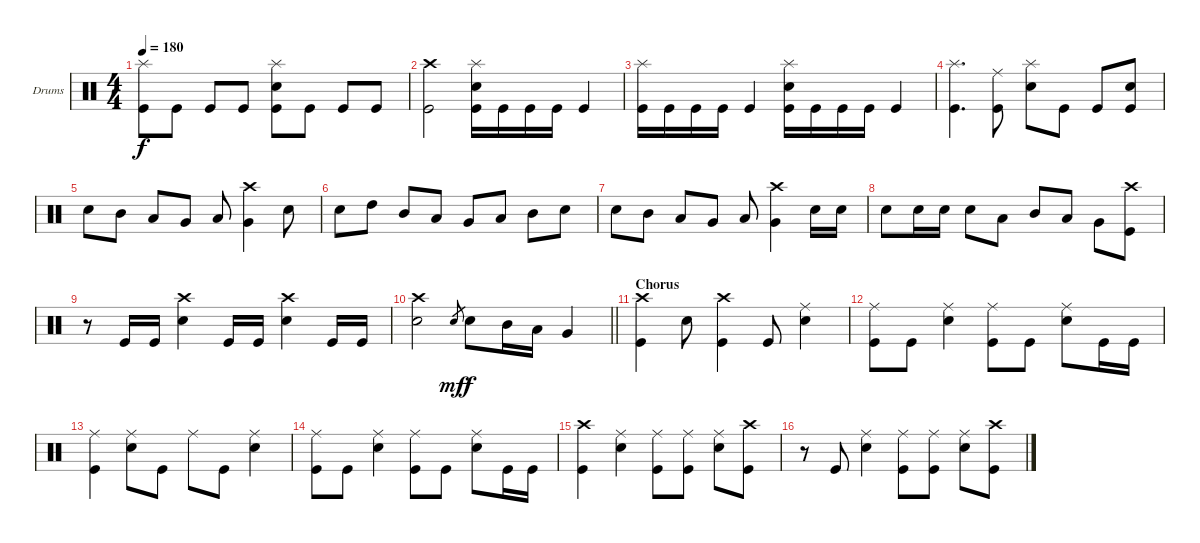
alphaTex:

\bracketExtendMode groupsimilarinstruments
\firstSystemTrackNameOrientation horizontal
\otherSystemsTrackNameOrientation horizontal
\track ("Drumkit" "Drums") {instrument percussion}
\staff {score}
\articulation defaults
\ts (4 4)
\tempo 180
\clef neutral
\ks c
("Splash (hit)" "Kick (hit)").8{dy f} "Kick (hit)".8 "Kick (hit)".8 "Kick (hit)".8 ("Splash (hit)" "Snare (hit) 2" "Kick (hit)").8 "Kick (hit)".8 "Kick (hit)".8 "Kick (hit)".8 |
("Crash high (hit)" "Kick (hit)").2 ("Splash (hit)" "Snare (hit) 2" "Kick (hit)").16 "Kick (hit)".16 "Kick (hit)".16 "Kick (hit)".16 "Kick (hit)".4 |
("Splash (hit)" "Kick (hit)").16 "Kick (hit)".16 "Kick (hit)".16 "Kick (hit)".16 "Kick (hit)".4 ("Splash (hit)" "Snare (hit) 2" "Kick (hit)").16 "Kick (hit)".16 "Kick (hit)".16 "Kick (hit)".16 "Kick (hit)".4 |
("Splash (hit)" "Kick (hit)").4{d} ("Ride (middle)" "Kick (hit)").8 ("Splash (hit)" "Snare (hit) 2").8 "Kick (hit)".8 "Kick (hit)".8 ("Snare (hit) 2" "Kick (hit)").8 |
"Snare (hit) 2".8 "Mid Tom (hit)".8 "Low Tom (hit)".8 "Very Low Tom (hit)".8 "Low Tom (hit)".8 ("Crash high (hit)" "Very Low Tom (hit)").4 "Snare (hit) 2".8 |
"Snare (hit) 2".8 "High Tom (hit)".8 "Mid Tom (hit)".8 "Low Tom (hit)".8 "Very Low Tom (hit)".8 "Low Tom (hit)".8 "Mid Tom (hit)".8 "Snare (hit) 2".8 |
"Snare (hit) 2".8 "Mid Tom (hit)".8 "Low Tom (hit)".8 "Very Low Tom (hit)".8 "Low Tom (hit)".8 ("Crash high (hit)" "Very Low Tom (hit)").4 "Snare (hit) 2".16 "Snare (hit) 2".16 |
"Snare (hit) 2".8 "Snare (hit) 2".16 "Snare (hit) 2".16 "Snare (hit) 2".8 "Low Tom (hit)".8 "Mid Tom (hit)".8 "Low Tom (hit)".8 "Very Low Tom (hit)".8 ("Crash high (hit)" "Kick (hit)").8 |
r.8 "Kick (hit)".16 "Kick (hit)".16 ("Crash high (hit)" "Snare (hit) 2").4 "Kick (hit)".16 "Kick (hit)".16 ("Crash high (hit)" "Snare (hit) 2").4 "Kick (hit)".16 "Kick (hit)".16 |
\barLineRight lightlight
("Crash high (hit)" "Snare (hit) 2").2 "Snare (hit) 2".8{gr dy mf} "Snare (hit) 2".8{dy f} "Mid Tom (hit)".16 "Low Tom (hit)".16 "Very Low Tom (hit)".4 |
\section ("" "Chorus")
("Crash high (hit)" "Kick (hit)").4 "Snare (hit) 2".8 ("Crash high (hit)" "Kick (hit)").4 "Kick (hit)".8 ("Ride (middle)" "Snare (hit) 2").4 |
("Ride (middle)" "Kick (hit)").8 "Kick (hit)".8 ("Ride (middle)" "Snare (hit) 2").4 ("Ride (middle)" "Kick (hit)").8 "Kick (hit)".8 ("Ride (middle)" "Snare (hit) 2").8 "Kick (hit)".16 "Kick (hit)".16 |
("Ride (middle)" "Kick (hit)").4 ("Ride (middle)" "Snare (hit) 2").8 "Kick (hit)".8 "Ride (middle)".8 "Kick (hit)".8 ("Ride (middle)" "Snare (hit) 2").4 |
("Ride (middle)" "Kick (hit)").8 "Kick (hit)".8 ("Ride (middle)" "Snare (hit) 2").4 ("Ride (middle)" "Kick (hit)").8 "Kick (hit)".8 ("Ride (middle)" "Snare (hit) 2").8 "Kick (hit)".16 "Kick (hit)".16 |
("Crash high (hit)" "Kick (hit)").4 ("Ride (middle)" "Snare (hit) 2").4 ("Ride (middle)" "Kick (hit)").8 ("Ride (middle)" "Kick (hit)").8 ("Ride (middle)" "Snare (hit) 2").8 ("Crash high (hit)" "Kick (hit)").8 |
r.8 "Kick (hit)".8 ("Ride (middle)" "Snare (hit) 2").4 ("Ride (middle)" "Kick (hit)").8 ("Ride (middle)" "Kick (hit)").8 ("Ride (middle)" "Snare (hit) 2").8 ("Crash high (hit)" "Kick (hit)").8
